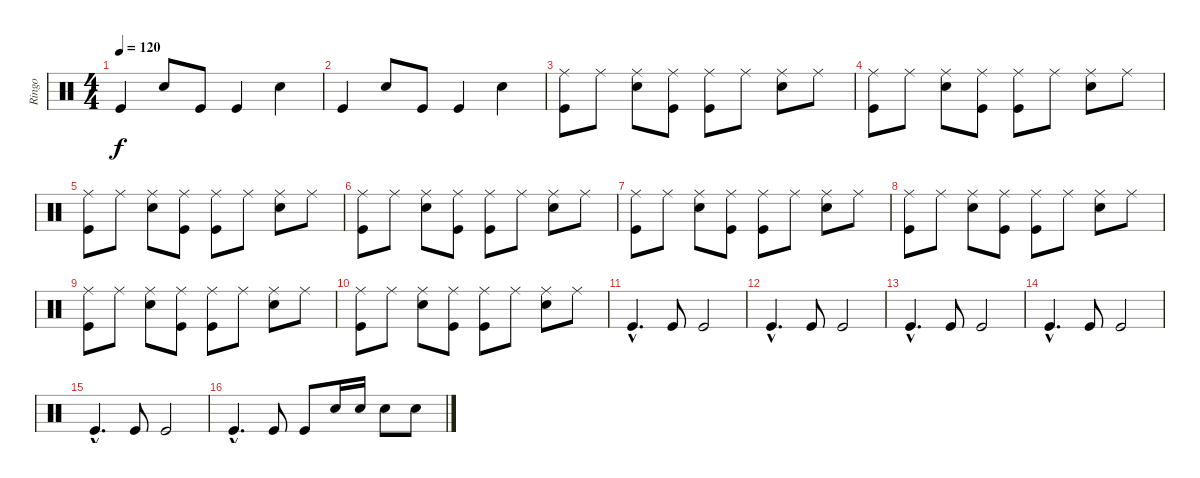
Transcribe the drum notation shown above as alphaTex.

\track ("Ringo" "Ringo") {instrument percussion}
\staff {score}
\articulation defaults
\ts (4 4)
\tempo 120
\clef neutral
\ks c "Kick (hit)".4{dy f} "Snare (hit) 2".8 "Kick (hit)".8 "Kick (hit)".4 "Snare (hit) 2".4
|
"Kick (hit)".4 "Snare (hit) 2".8 "Kick (hit)".8 "Kick (hit)".4 "Snare (hit) 2".4 |
("Ride (middle)" "Kick (hit)").8 "Ride (middle)".8 ("Ride (middle)" "Snare (hit) 2").8 ("Ride (middle)" "Kick (hit)").8 ("Ride (middle)" "Kick (hit)").8 "Ride (middle)".8 ("Ride (middle)" "Snare (hit) 2").8 "Ride (middle)".8 |
("Ride (middle)" "Kick (hit)").8 "Ride (middle)".8 ("Ride (middle)" "Snare (hit) 2").8 ("Ride (middle)" "Kick (hit)").8 ("Ride (middle)" "Kick (hit)").8 "Ride (middle)".8 ("Ride (middle)" "Snare (hit) 2").8 "Ride (middle)".8 |
("Ride (middle)" "Kick (hit)").8 "Ride (middle)".8 ("Ride (middle)" "Snare (hit) 2").8 ("Ride (middle)" "Kick (hit)").8 ("Ride (middle)" "Kick (hit)").8 "Ride (middle)".8 ("Ride (middle)" "Snare (hit) 2").8 "Ride (middle)".8 |
("Ride (middle)" "Kick (hit)").8 "Ride (middle)".8 ("Ride (middle)" "Snare (hit) 2").8 ("Ride (middle)" "Kick (hit)").8 ("Ride (middle)" "Kick (hit)").8 "Ride (middle)".8 ("Ride (middle)" "Snare (hit) 2").8 "Ride (middle)".8 |
("Ride (middle)" "Kick (hit)").8 "Ride (middle)".8 ("Ride (middle)" "Snare (hit) 2").8 ("Ride (middle)" "Kick (hit)").8 ("Ride (middle)" "Kick (hit)").8 "Ride (middle)".8 ("Ride (middle)" "Snare (hit) 2").8 "Ride (middle)".8 |
("Ride (middle)" "Kick (hit)").8 "Ride (middle)".8 ("Ride (middle)" "Snare (hit) 2").8 ("Ride (middle)" "Kick (hit)").8 ("Ride (middle)" "Kick (hit)").8 "Ride (middle)".8 ("Ride (middle)" "Snare (hit) 2").8 "Ride (middle)".8 |
("Ride (middle)" "Kick (hit)").8 "Ride (middle)".8 ("Ride (middle)" "Snare (hit) 2").8 ("Ride (middle)" "Kick (hit)").8 ("Ride (middle)" "Kick (hit)").8 "Ride (middle)".8 ("Ride (middle)" "Snare (hit) 2").8 "Ride (middle)".8 |
("Ride (middle)" "Kick (hit)").8 "Ride (middle)".8 ("Ride (middle)" "Snare (hit) 2").8 ("Ride (middle)" "Kick (hit)").8 ("Ride (middle)" "Kick (hit)").8 "Ride (middle)".8 ("Ride (middle)" "Snare (hit) 2").8 "Ride (middle)".8 |
"Kick (hit)"{hac}.4{d} "Kick (hit)".8 "Kick (hit)".2 |
"Kick (hit)"{hac}.4{d} "Kick (hit)".8 "Kick (hit)".2 |
"Kick (hit)"{hac}.4{d} "Kick (hit)".8 "Kick (hit)".2 |
"Kick (hit)"{hac}.4{d} "Kick (hit)".8 "Kick (hit)".2 |
"Kick (hit)"{hac}.4{d} "Kick (hit)".8 "Kick (hit)".2 |
"Kick (hit)"{hac}.4{d} "Kick (hit)".8 "Kick (hit)".8 "Snare (hit) 2".16 "Snare (hit) 2".16 "Snare (hit) 2".8 "Snare (hit) 2".8
